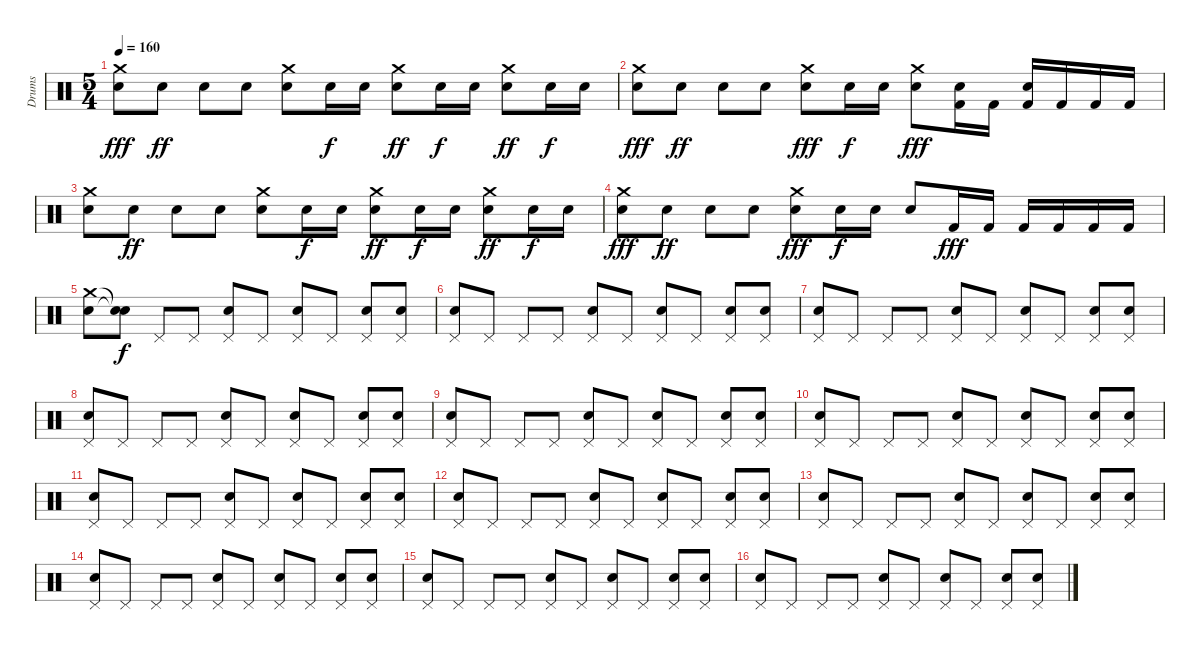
\track ("Drums" "Drums") {instrument percussion}
\staff {score}
\articulation defaults
\ts (5 4)
\tempo 160
\clef neutral
\ks c
("Electric Snare (hit)" "Crash medium (hit)").8{dy fff} "Electric Snare (hit)".8{dy ff} "Electric Snare (hit)".8 "Electric Snare (hit)".8 ("Electric Snare (hit)" "Crash medium (hit)").8 "Electric Snare (hit)".16{dy f} "Electric Snare (hit)".16 ("Electric Snare (hit)" "Crash medium (hit)").8{dy ff} "Electric Snare (hit)".16{dy f} "Electric Snare (hit)".16 ("Electric Snare (hit)" "Crash medium (hit)").8{dy ff} "Electric Snare (hit)".16{dy f} "Electric Snare (hit)".16 |
("Electric Snare (hit)" "Crash medium (hit)").8{dy fff} "Electric Snare (hit)".8{dy ff} "Electric Snare (hit)".8 "Electric Snare (hit)".8 ("Electric Snare (hit)" "Crash medium (hit)").8{dy fff} "Electric Snare (hit)".16{dy f} "Electric Snare (hit)".16 ("Electric Snare (hit)" "Crash medium (hit)").8{dy fff} ("Kick (hit) 2" "Electric Snare (hit)").16 "Kick (hit) 2".16 ("Kick (hit) 2" "Electric Snare (hit)").16 "Kick (hit) 2".16 "Kick (hit) 2".16 "Kick (hit) 2".16 |
("Electric Snare (hit)" "Crash medium (hit)").8 "Electric Snare (hit)".8{dy ff} "Electric Snare (hit)".8 "Electric Snare (hit)".8 ("Electric Snare (hit)" "Crash medium (hit)").8 "Electric Snare (hit)".16{dy f} "Electric Snare (hit)".16 ("Electric Snare (hit)" "Crash medium (hit)").8{dy ff} "Electric Snare (hit)".16{dy f} "Electric Snare (hit)".16 ("Electric Snare (hit)" "Crash medium (hit)").8{dy ff} "Electric Snare (hit)".16{dy f} "Electric Snare (hit)".16 |
("Electric Snare (hit)" "Crash medium (hit)").8{dy fff} "Electric Snare (hit)".8{dy ff} "Electric Snare (hit)".8 "Electric Snare (hit)".8 ("Electric Snare (hit)" "Crash medium (hit)").8{dy fff} "Electric Snare (hit)".16{dy f} "Electric Snare (hit)".16 "Electric Snare (hit)".8 "Kick (hit) 2".16{dy fff} "Kick (hit) 2".16 "Kick (hit) 2".16 "Kick (hit) 2".16 "Kick (hit) 2".16 "Kick (hit) 2".16 |
("Electric Snare (hit)" "Crash medium (hit)").8 ("Snare (hit)"{t} "Snare (hit)"{t}).8{dy f} "Pedal Hi-Hat (hit)".8 "Pedal Hi-Hat (hit)".8 ("Pedal Hi-Hat (hit)" "Electric Snare (hit)").8 "Pedal Hi-Hat (hit)".8 ("Pedal Hi-Hat (hit)" "Electric Snare (hit)").8 "Pedal Hi-Hat (hit)".8 ("Pedal Hi-Hat (hit)" "Electric Snare (hit)").8 ("Pedal Hi-Hat (hit)" "Electric Snare (hit)").8 |
("Pedal Hi-Hat (hit)" "Electric Snare (hit)").8 "Pedal Hi-Hat (hit)".8 "Pedal Hi-Hat (hit)".8 "Pedal Hi-Hat (hit)".8 ("Pedal Hi-Hat (hit)" "Electric Snare (hit)").8 "Pedal Hi-Hat (hit)".8 ("Pedal Hi-Hat (hit)" "Electric Snare (hit)").8 "Pedal Hi-Hat (hit)".8 ("Pedal Hi-Hat (hit)" "Electric Snare (hit)").8 ("Pedal Hi-Hat (hit)" "Electric Snare (hit)").8 |
("Pedal Hi-Hat (hit)" "Electric Snare (hit)").8 "Pedal Hi-Hat (hit)".8 "Pedal Hi-Hat (hit)".8 "Pedal Hi-Hat (hit)".8 ("Pedal Hi-Hat (hit)" "Electric Snare (hit)").8 "Pedal Hi-Hat (hit)".8 ("Pedal Hi-Hat (hit)" "Electric Snare (hit)").8 "Pedal Hi-Hat (hit)".8 ("Pedal Hi-Hat (hit)" "Electric Snare (hit)").8 ("Pedal Hi-Hat (hit)" "Electric Snare (hit)").8 |
("Pedal Hi-Hat (hit)" "Electric Snare (hit)").8 "Pedal Hi-Hat (hit)".8 "Pedal Hi-Hat (hit)".8 "Pedal Hi-Hat (hit)".8 ("Pedal Hi-Hat (hit)" "Electric Snare (hit)").8 "Pedal Hi-Hat (hit)".8 ("Pedal Hi-Hat (hit)" "Electric Snare (hit)").8 "Pedal Hi-Hat (hit)".8 ("Pedal Hi-Hat (hit)" "Electric Snare (hit)").8 ("Pedal Hi-Hat (hit)" "Electric Snare (hit)").8 |
("Pedal Hi-Hat (hit)" "Electric Snare (hit)").8 "Pedal Hi-Hat (hit)".8 "Pedal Hi-Hat (hit)".8 "Pedal Hi-Hat (hit)".8 ("Pedal Hi-Hat (hit)" "Electric Snare (hit)").8 "Pedal Hi-Hat (hit)".8 ("Pedal Hi-Hat (hit)" "Electric Snare (hit)").8 "Pedal Hi-Hat (hit)".8 ("Pedal Hi-Hat (hit)" "Electric Snare (hit)").8 ("Pedal Hi-Hat (hit)" "Electric Snare (hit)").8 |
("Pedal Hi-Hat (hit)" "Electric Snare (hit)").8 "Pedal Hi-Hat (hit)".8 "Pedal Hi-Hat (hit)".8 "Pedal Hi-Hat (hit)".8 ("Pedal Hi-Hat (hit)" "Electric Snare (hit)").8 "Pedal Hi-Hat (hit)".8 ("Pedal Hi-Hat (hit)" "Electric Snare (hit)").8 "Pedal Hi-Hat (hit)".8 ("Pedal Hi-Hat (hit)" "Electric Snare (hit)").8 ("Pedal Hi-Hat (hit)" "Electric Snare (hit)").8 |
("Pedal Hi-Hat (hit)" "Electric Snare (hit)").8 "Pedal Hi-Hat (hit)".8 "Pedal Hi-Hat (hit)".8 "Pedal Hi-Hat (hit)".8 ("Pedal Hi-Hat (hit)" "Electric Snare (hit)").8 "Pedal Hi-Hat (hit)".8 ("Pedal Hi-Hat (hit)" "Electric Snare (hit)").8 "Pedal Hi-Hat (hit)".8 ("Pedal Hi-Hat (hit)" "Electric Snare (hit)").8 ("Pedal Hi-Hat (hit)" "Electric Snare (hit)").8 |
("Pedal Hi-Hat (hit)" "Electric Snare (hit)").8 "Pedal Hi-Hat (hit)".8 "Pedal Hi-Hat (hit)".8 "Pedal Hi-Hat (hit)".8 ("Pedal Hi-Hat (hit)" "Electric Snare (hit)").8 "Pedal Hi-Hat (hit)".8 ("Pedal Hi-Hat (hit)" "Electric Snare (hit)").8 "Pedal Hi-Hat (hit)".8 ("Pedal Hi-Hat (hit)" "Electric Snare (hit)").8 ("Pedal Hi-Hat (hit)" "Electric Snare (hit)").8 |
("Pedal Hi-Hat (hit)" "Electric Snare (hit)").8 "Pedal Hi-Hat (hit)".8 "Pedal Hi-Hat (hit)".8 "Pedal Hi-Hat (hit)".8 ("Pedal Hi-Hat (hit)" "Electric Snare (hit)").8 "Pedal Hi-Hat (hit)".8 ("Pedal Hi-Hat (hit)" "Electric Snare (hit)").8 "Pedal Hi-Hat (hit)".8 ("Pedal Hi-Hat (hit)" "Electric Snare (hit)").8 ("Pedal Hi-Hat (hit)" "Electric Snare (hit)").8 |
("Pedal Hi-Hat (hit)" "Electric Snare (hit)").8 "Pedal Hi-Hat (hit)".8 "Pedal Hi-Hat (hit)".8 "Pedal Hi-Hat (hit)".8 ("Pedal Hi-Hat (hit)" "Electric Snare (hit)").8 "Pedal Hi-Hat (hit)".8 ("Pedal Hi-Hat (hit)" "Electric Snare (hit)").8 "Pedal Hi-Hat (hit)".8 ("Pedal Hi-Hat (hit)" "Electric Snare (hit)").8 ("Pedal Hi-Hat (hit)" "Electric Snare (hit)").8 |
("Pedal Hi-Hat (hit)" "Electric Snare (hit)").8 "Pedal Hi-Hat (hit)".8 "Pedal Hi-Hat (hit)".8 "Pedal Hi-Hat (hit)".8 ("Pedal Hi-Hat (hit)" "Electric Snare (hit)").8 "Pedal Hi-Hat (hit)".8 ("Pedal Hi-Hat (hit)" "Electric Snare (hit)").8 "Pedal Hi-Hat (hit)".8 ("Pedal Hi-Hat (hit)" "Electric Snare (hit)").8 ("Pedal Hi-Hat (hit)" "Electric Snare (hit)").8 |
("Pedal Hi-Hat (hit)" "Electric Snare (hit)").8 "Pedal Hi-Hat (hit)".8 "Pedal Hi-Hat (hit)".8 "Pedal Hi-Hat (hit)".8 ("Pedal Hi-Hat (hit)" "Electric Snare (hit)").8 "Pedal Hi-Hat (hit)".8 ("Pedal Hi-Hat (hit)" "Electric Snare (hit)").8 "Pedal Hi-Hat (hit)".8 ("Pedal Hi-Hat (hit)" "Electric Snare (hit)").8 ("Pedal Hi-Hat (hit)" "Electric Snare (hit)").8
